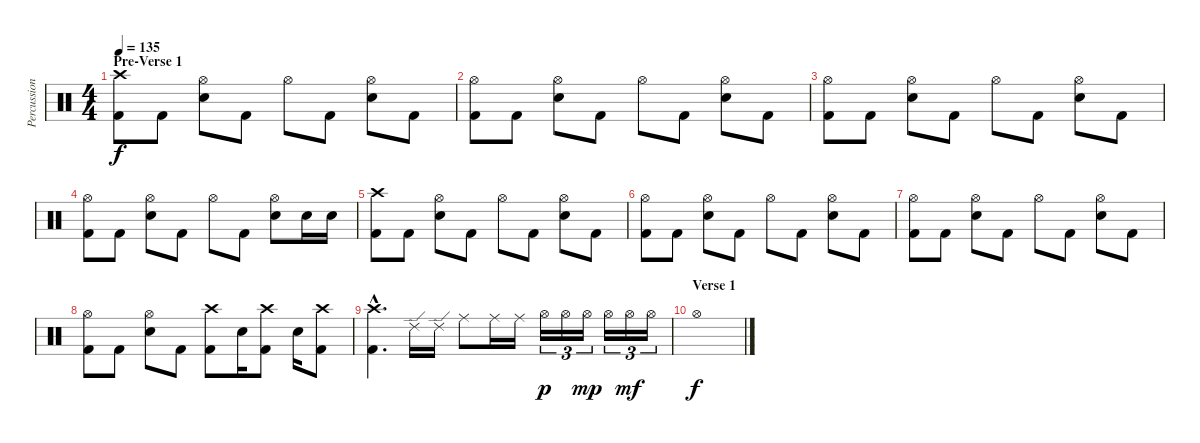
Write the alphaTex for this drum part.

\track ("Percussion" "Percussion") {instrument percussion}
\staff {score}
\articulation defaults
\ts (4 4)
\section ("" "Pre-Verse 1")
\tempo 135
\clef neutral
\ks c
("Kick (hit) 2" "Crash high (hit)").8{dy f} "Kick (hit) 2".8 ("Electric Snare (hit)" "Hi-Hat (open)").8 "Kick (hit) 2".8 "Hi-Hat (open)".8 "Kick (hit) 2".8 ("Electric Snare (hit)" "Hi-Hat (open)").8 "Kick (hit) 2".8 |
("Kick (hit) 2" "Hi-Hat (open)").8 "Kick (hit) 2".8 ("Electric Snare (hit)" "Hi-Hat (open)").8 "Kick (hit) 2".8 "Hi-Hat (open)".8 "Kick (hit) 2".8 ("Electric Snare (hit)" "Hi-Hat (open)").8 "Kick (hit) 2".8 |
("Kick (hit) 2" "Hi-Hat (open)").8 "Kick (hit) 2".8 ("Electric Snare (hit)" "Hi-Hat (open)").8 "Kick (hit) 2".8 "Hi-Hat (open)".8 "Kick (hit) 2".8 ("Electric Snare (hit)" "Hi-Hat (open)").8 "Kick (hit) 2".8 |
("Kick (hit) 2" "Hi-Hat (open)").8 "Kick (hit) 2".8 ("Electric Snare (hit)" "Hi-Hat (open)").8 "Kick (hit) 2".8 "Hi-Hat (open)".8 "Kick (hit) 2".8 ("Electric Snare (hit)" "Hi-Hat (open)").8 "Electric Snare (hit)".16 "Electric Snare (hit)".16 |
("Kick (hit) 2" "Crash high (hit)").8 "Kick (hit) 2".8 ("Electric Snare (hit)" "Hi-Hat (open)").8 "Kick (hit) 2".8 "Hi-Hat (open)".8 "Kick (hit) 2".8 ("Electric Snare (hit)" "Hi-Hat (open)").8 "Kick (hit) 2".8 |
("Kick (hit) 2" "Hi-Hat (open)").8 "Kick (hit) 2".8 ("Electric Snare (hit)" "Hi-Hat (open)").8 "Kick (hit) 2".8 "Hi-Hat (open)".8 "Kick (hit) 2".8 ("Electric Snare (hit)" "Hi-Hat (open)").8 "Kick (hit) 2".8 |
("Kick (hit) 2" "Hi-Hat (open)").8 "Kick (hit) 2".8 ("Electric Snare (hit)" "Hi-Hat (open)").8 "Kick (hit) 2".8 "Hi-Hat (open)".8 "Kick (hit) 2".8 ("Electric Snare (hit)" "Hi-Hat (open)").8 "Kick (hit) 2".8 |
("Kick (hit) 2" "Hi-Hat (open)").8 "Kick (hit) 2".8 ("Electric Snare (hit)" "Hi-Hat (open)").8 "Kick (hit) 2".8 ("Kick (hit) 2" "Crash high (hit)").8 "Electric Snare (hit)".16 ("Kick (hit) 2" "Crash high (hit)").8 "Electric Snare (hit)".16 ("Kick (hit) 2" "Crash high (hit)").8 |
("Kick (hit) 2"{hac} "Crash high (hit)"{hac}).4{d} "Ride (edge) 2".16 "Ride (edge) 2".16 "Ride (middle)".8 "Ride (middle)".16 "Ride (middle)".16 "Hi-Hat (open)".16{tu (3 2) dy p} "Hi-Hat (open)".16{tu (3 2)} "Hi-Hat (open)".16{tu (3 2) dy mp} "Hi-Hat (open)".16{tu (3 2)} "Hi-Hat (open)".16{tu (3 2) dy mf} "Hi-Hat (open)".16{tu (3 2)} |
\section ("" "Verse 1")
"Hi-Hat (open)".1{dy f}
